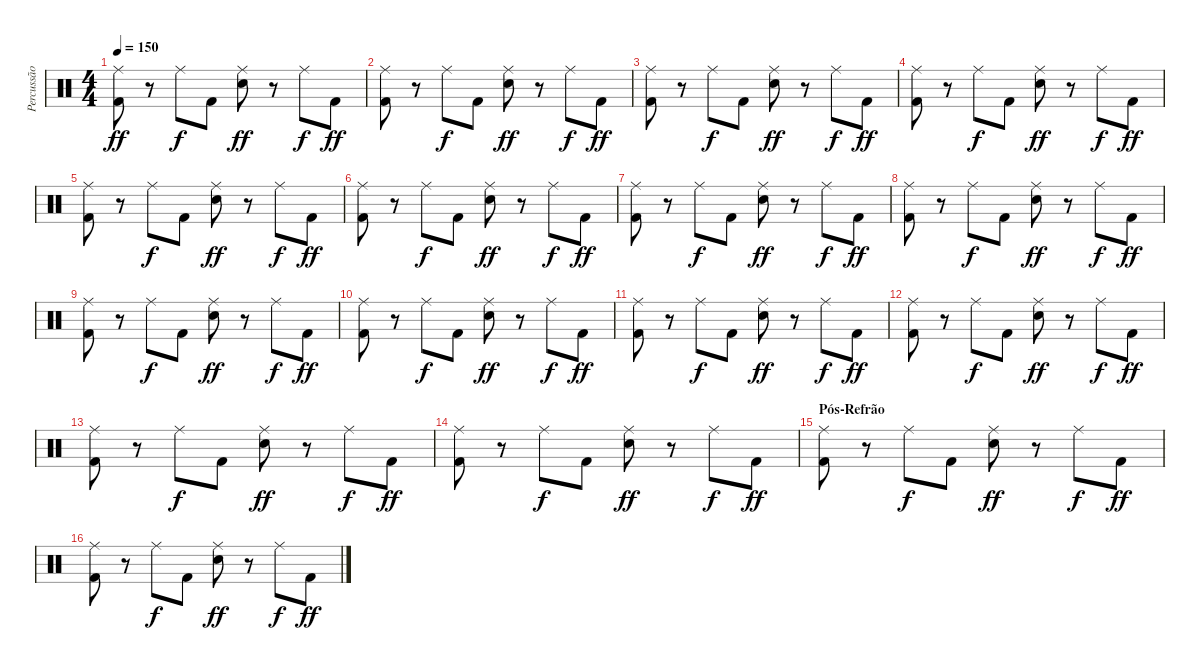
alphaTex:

\track ("Percussão" "Percussão") {instrument percussion}
\staff {score}
\articulation defaults
\ts (4 4)
\tempo 150
\clef neutral
\ks c
("Kick (hit) 2" "Ride (middle)").8{dy ff} r.8 "Ride (middle)".8{dy f} "Kick (hit) 2".8 ("Electric Snare (hit)" "Ride (middle)").8{dy ff} r.8 "Ride (middle)".8{dy f} "Kick (hit) 2".8{dy ff} |
("Kick (hit) 2" "Ride (middle)").8 r.8 "Ride (middle)".8{dy f} "Kick (hit) 2".8 ("Electric Snare (hit)" "Ride (middle)").8{dy ff} r.8 "Ride (middle)".8{dy f} "Kick (hit) 2".8{dy ff} |
("Kick (hit) 2" "Ride (middle)").8 r.8 "Ride (middle)".8{dy f} "Kick (hit) 2".8 ("Electric Snare (hit)" "Ride (middle)").8{dy ff} r.8 "Ride (middle)".8{dy f} "Kick (hit) 2".8{dy ff} |
("Kick (hit) 2" "Ride (middle)").8 r.8 "Ride (middle)".8{dy f} "Kick (hit) 2".8 ("Electric Snare (hit)" "Ride (middle)").8{dy ff} r.8 "Ride (middle)".8{dy f} "Kick (hit) 2".8{dy ff} |
("Kick (hit) 2" "Ride (middle)").8 r.8 "Ride (middle)".8{dy f} "Kick (hit) 2".8 ("Electric Snare (hit)" "Ride (middle)").8{dy ff} r.8 "Ride (middle)".8{dy f} "Kick (hit) 2".8{dy ff} |
("Kick (hit) 2" "Ride (middle)").8 r.8 "Ride (middle)".8{dy f} "Kick (hit) 2".8 ("Electric Snare (hit)" "Ride (middle)").8{dy ff} r.8 "Ride (middle)".8{dy f} "Kick (hit) 2".8{dy ff} |
("Kick (hit) 2" "Ride (middle)").8 r.8 "Ride (middle)".8{dy f} "Kick (hit) 2".8 ("Electric Snare (hit)" "Ride (middle)").8{dy ff} r.8 "Ride (middle)".8{dy f} "Kick (hit) 2".8{dy ff} |
("Kick (hit) 2" "Ride (middle)").8 r.8 "Ride (middle)".8{dy f} "Kick (hit) 2".8 ("Electric Snare (hit)" "Ride (middle)").8{dy ff} r.8 "Ride (middle)".8{dy f} "Kick (hit) 2".8{dy ff} |
("Kick (hit) 2" "Ride (middle)").8 r.8 "Ride (middle)".8{dy f} "Kick (hit) 2".8 ("Electric Snare (hit)" "Ride (middle)").8{dy ff} r.8 "Ride (middle)".8{dy f} "Kick (hit) 2".8{dy ff} |
("Kick (hit) 2" "Ride (middle)").8 r.8 "Ride (middle)".8{dy f} "Kick (hit) 2".8 ("Electric Snare (hit)" "Ride (middle)").8{dy ff} r.8 "Ride (middle)".8{dy f} "Kick (hit) 2".8{dy ff} |
("Kick (hit) 2" "Ride (middle)").8 r.8 "Ride (middle)".8{dy f} "Kick (hit) 2".8 ("Electric Snare (hit)" "Ride (middle)").8{dy ff} r.8 "Ride (middle)".8{dy f} "Kick (hit) 2".8{dy ff} |
("Kick (hit) 2" "Ride (middle)").8 r.8 "Ride (middle)".8{dy f} "Kick (hit) 2".8 ("Electric Snare (hit)" "Ride (middle)").8{dy ff} r.8 "Ride (middle)".8{dy f} "Kick (hit) 2".8{dy ff} |
("Kick (hit) 2" "Ride (middle)").8 r.8 "Ride (middle)".8{dy f} "Kick (hit) 2".8 ("Electric Snare (hit)" "Ride (middle)").8{dy ff} r.8 "Ride (middle)".8{dy f} "Kick (hit) 2".8{dy ff} |
("Kick (hit) 2" "Ride (middle)").8 r.8 "Ride (middle)".8{dy f} "Kick (hit) 2".8 ("Electric Snare (hit)" "Ride (middle)").8{dy ff} r.8 "Ride (middle)".8{dy f} "Kick (hit) 2".8{dy ff} |
\section ("" "Pós-Refrão")
("Kick (hit) 2" "Ride (middle)").8 r.8 "Ride (middle)".8{dy f} "Kick (hit) 2".8 ("Electric Snare (hit)" "Ride (middle)").8{dy ff} r.8 "Ride (middle)".8{dy f} "Kick (hit) 2".8{dy ff} |
("Kick (hit) 2" "Ride (middle)").8 r.8 "Ride (middle)".8{dy f} "Kick (hit) 2".8 ("Electric Snare (hit)" "Ride (middle)").8{dy ff} r.8 "Ride (middle)".8{dy f} "Kick (hit) 2".8{dy ff}
